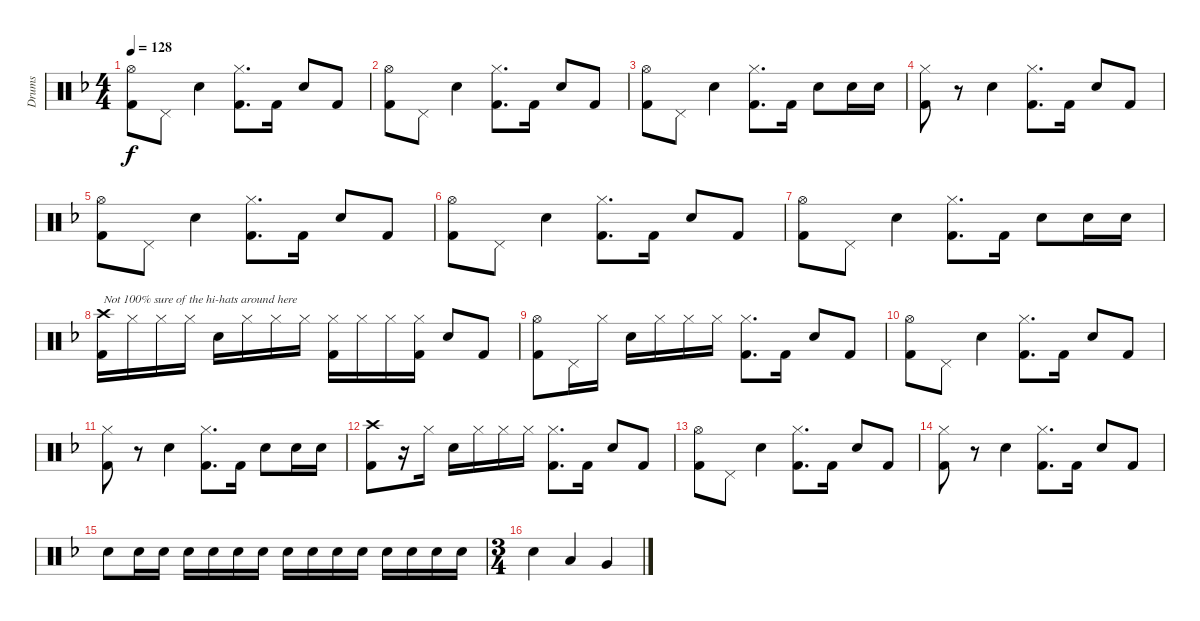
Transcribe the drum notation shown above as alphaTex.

\track ("Drums" "Drums") {instrument percussion}
\staff {score}
\articulation defaults
\ts (4 4)
\tempo 128
\clef neutral
\ks f
("Hi-Hat (open)" "Kick (hit) 2").8{dy f} "Pedal Hi-Hat (hit)".8 "Electric Snare (hit)".4 ("Hi-Hat (closed)" "Kick (hit) 2").8{d} "Kick (hit) 2".16 "Electric Snare (hit)".8 "Kick (hit) 2".8 |
("Hi-Hat (open)" "Kick (hit) 2").8 "Pedal Hi-Hat (hit)".8 "Electric Snare (hit)".4 ("Hi-Hat (closed)" "Kick (hit) 2").8{d} "Kick (hit) 2".16 "Electric Snare (hit)".8 "Kick (hit) 2".8 |
("Hi-Hat (open)" "Kick (hit) 2").8 "Pedal Hi-Hat (hit)".8 "Electric Snare (hit)".4 ("Hi-Hat (closed)" "Kick (hit) 2").8{d} "Kick (hit) 2".16 "Electric Snare (hit)".8 "Electric Snare (hit)".16 "Electric Snare (hit)".16 |
("Hi-Hat (closed)" "Kick (hit) 2").8 r.8 "Electric Snare (hit)".4 ("Hi-Hat (closed)" "Kick (hit) 2").8{d} "Kick (hit) 2".16 "Electric Snare (hit)".8 "Kick (hit) 2".8 |
("Hi-Hat (open)" "Kick (hit) 2").8 "Pedal Hi-Hat (hit)".8 "Electric Snare (hit)".4 ("Hi-Hat (closed)" "Kick (hit) 2").8{d} "Kick (hit) 2".16 "Electric Snare (hit)".8 "Kick (hit) 2".8 |
("Hi-Hat (open)" "Kick (hit) 2").8 "Pedal Hi-Hat (hit)".8 "Electric Snare (hit)".4 ("Hi-Hat (closed)" "Kick (hit) 2").8{d} "Kick (hit) 2".16 "Electric Snare (hit)".8 "Kick (hit) 2".8 |
("Hi-Hat (open)" "Kick (hit) 2").8 "Pedal Hi-Hat (hit)".8 "Electric Snare (hit)".4 ("Hi-Hat (closed)" "Kick (hit) 2").8{d} "Kick (hit) 2".16 "Electric Snare (hit)".8 "Electric Snare (hit)".16 "Electric Snare (hit)".16 |
("Crash high (hit)" "Kick (hit) 2").16{txt "Not 100% sure of the hi-hats around here"} "Hi-Hat (closed)".16 "Hi-Hat (closed)".16 "Hi-Hat (closed)".16 "Electric Snare (hit)".16 "Hi-Hat (closed)".16 "Hi-Hat (closed)".16 "Hi-Hat (closed)".16 ("Hi-Hat (closed)" "Kick (hit) 2").16 "Hi-Hat (closed)".16 "Hi-Hat (closed)".16 ("Hi-Hat (closed)" "Kick (hit) 2").16 "Electric Snare (hit)".8 "Kick (hit) 2".8 |
("Hi-Hat (open)" "Kick (hit) 2").8 "Pedal Hi-Hat (hit)".16 "Hi-Hat (closed)".16 "Electric Snare (hit)".16 "Hi-Hat (closed)".16 "Hi-Hat (closed)".16 "Hi-Hat (closed)".16 ("Hi-Hat (closed)" "Kick (hit) 2").8{d} "Kick (hit) 2".16 "Electric Snare (hit)".8 "Kick (hit) 2".8 |
("Hi-Hat (open)" "Kick (hit) 2").8 "Pedal Hi-Hat (hit)".8 "Electric Snare (hit)".4 ("Hi-Hat (closed)" "Kick (hit) 2").8{d} "Kick (hit) 2".16 "Electric Snare (hit)".8 "Kick (hit) 2".8 |
("Hi-Hat (closed)" "Kick (hit) 2").8 r.8 "Electric Snare (hit)".4 ("Hi-Hat (closed)" "Kick (hit) 2").8{d} "Kick (hit) 2".16 "Electric Snare (hit)".8 "Electric Snare (hit)".16 "Electric Snare (hit)".16 |
("Crash high (hit)" "Kick (hit) 2").8 r.16 "Hi-Hat (closed)".16 "Electric Snare (hit)".16 "Hi-Hat (closed)".16 "Hi-Hat (closed)".16 "Hi-Hat (closed)".16 ("Hi-Hat (closed)" "Kick (hit) 2").8{d} "Kick (hit) 2".16 "Electric Snare (hit)".8 "Kick (hit) 2".8 |
("Hi-Hat (open)" "Kick (hit) 2").8 "Pedal Hi-Hat (hit)".8 "Electric Snare (hit)".4 ("Hi-Hat (closed)" "Kick (hit) 2").8{d} "Kick (hit) 2".16 "Electric Snare (hit)".8 "Kick (hit) 2".8 |
("Hi-Hat (closed)" "Kick (hit) 2").8 r.8 "Electric Snare (hit)".4 ("Hi-Hat (closed)" "Kick (hit) 2").8{d} "Kick (hit) 2".16 "Electric Snare (hit)".8 "Kick (hit) 2".8 |
"Electric Snare (hit)".8 "Electric Snare (hit)".16 "Electric Snare (hit)".16 "Electric Snare (hit)".16 "Electric Snare (hit)".16 "Electric Snare (hit)".16 "Electric Snare (hit)".16 "Electric Snare (hit)".16 "Electric Snare (hit)".16 "Electric Snare (hit)".16 "Electric Snare (hit)".16 "Electric Snare (hit)".16 "Electric Snare (hit)".16 "Electric Snare (hit)".16 "Electric Snare (hit)".16 |
\ts (3 4)
"Electric Snare (hit)".4 "Low Tom (hit)".4 "Very Low Tom (hit)".4
